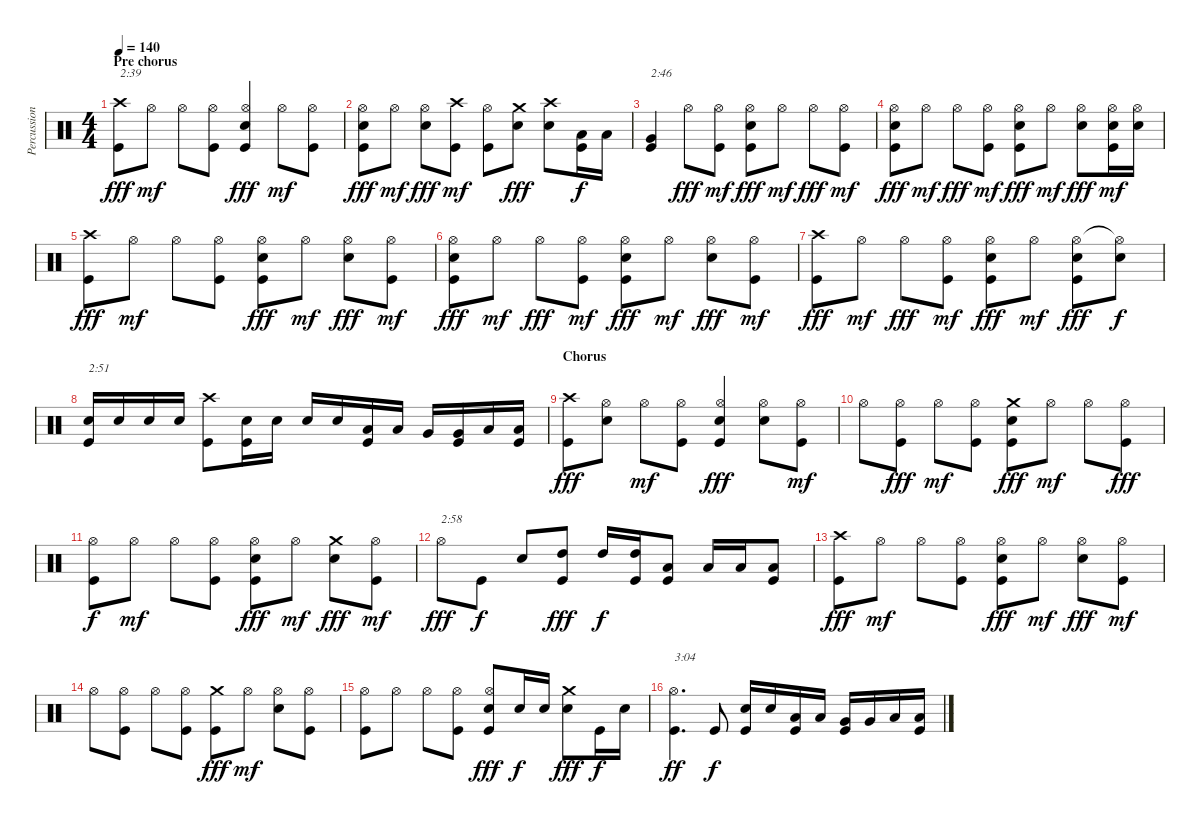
\track ("Percussion" "Percussion") {instrument percussion}
\staff {score}
\articulation defaults
\ts (4 4)
\section ("" "Pre chorus")
\tempo 140
\clef neutral
\ks c
("Crash high (hit)" "Kick (hit)").8{txt "2:39" dy fff} "Hi-Hat (open)".8{dy mf} "Hi-Hat (open)".8 ("Hi-Hat (open)" "Kick (hit)").8 ("Hi-Hat (open)" "Electric Snare (hit)" "Kick (hit)").4{dy fff} "Hi-Hat (open)".8{dy mf} ("Hi-Hat (open)" "Kick (hit)").8 |
("Hi-Hat (open)" "Electric Snare (hit)" "Kick (hit)").8{dy fff} "Hi-Hat (open)".8{dy mf} ("Hi-Hat (open)" "Electric Snare (hit)").8{dy fff} ("Crash high (hit)" "Kick (hit)").8{dy mf} ("Hi-Hat (open)" "Kick (hit)").8 ("Crash medium (hit)" "Electric Snare (hit)").8{dy fff} ("Crash high (hit)" "Electric Snare (hit)").8 ("Low Tom (hit)" "Kick (hit)").16{dy f} "Low Tom (hit)".16 |
("Very Low Tom (hit)" "Kick (hit)").4{txt "2:46"} "Hi-Hat (open)".8{dy fff} ("Hi-Hat (open)" "Kick (hit)").8{dy mf} ("Hi-Hat (open)" "Electric Snare (hit)" "Kick (hit)").8{dy fff} "Hi-Hat (open)".8{dy mf} "Hi-Hat (open)".8{dy fff} ("Hi-Hat (open)" "Kick (hit)").8{dy mf} |
("Hi-Hat (open)" "Electric Snare (hit)" "Kick (hit)").8{dy fff} "Hi-Hat (open)".8{dy mf} "Hi-Hat (open)".8{dy fff} ("Hi-Hat (open)" "Kick (hit)").8{dy mf} ("Hi-Hat (open)" "Electric Snare (hit)" "Kick (hit)").8{dy fff} "Hi-Hat (open)".8{dy mf} ("Hi-Hat (open)" "Electric Snare (hit)").8{dy fff} ("Hi-Hat (open)" "Electric Snare (hit)" "Kick (hit)").16{dy mf} ("Hi-Hat (open)" "Electric Snare (hit)").16 |
("Crash high (hit)" "Kick (hit)").8{dy fff} "Hi-Hat (open)".8{dy mf} "Hi-Hat (open)".8 ("Hi-Hat (open)" "Kick (hit)").8 ("Hi-Hat (open)" "Electric Snare (hit)" "Kick (hit)").8{dy fff} "Hi-Hat (open)".8{dy mf} ("Hi-Hat (open)" "Electric Snare (hit)").8{dy fff} ("Hi-Hat (open)" "Kick (hit)").8{dy mf} |
("Hi-Hat (open)" "Electric Snare (hit)" "Kick (hit)").8{dy fff} "Hi-Hat (open)".8{dy mf} "Hi-Hat (open)".8{dy fff} ("Hi-Hat (open)" "Kick (hit)").8{dy mf} ("Hi-Hat (open)" "Electric Snare (hit)" "Kick (hit)").8{dy fff} "Hi-Hat (open)".8{dy mf} ("Hi-Hat (open)" "Electric Snare (hit)").8{dy fff} ("Hi-Hat (open)" "Kick (hit)").8{dy mf} |
("Crash high (hit)" "Kick (hit)").8{dy fff} "Hi-Hat (open)".8{dy mf} "Hi-Hat (open)".8{dy fff} ("Hi-Hat (open)" "Kick (hit)").8{dy mf} ("Hi-Hat (open)" "Electric Snare (hit)" "Kick (hit)").8{dy fff} "Hi-Hat (open)".8{dy mf} ("Hi-Hat (open)" "Electric Snare (hit)" "Kick (hit)").8{dy fff} ("Hi-Hat (open)"{t} "Electric Snare (hit)").8{dy f} |
("Electric Snare (hit)" "Kick (hit)").16{txt "2:51"} "Electric Snare (hit)".16 "Electric Snare (hit)".16 "Electric Snare (hit)".16 ("Crash high (hit)" "Kick (hit)").8 ("Electric Snare (hit)" "Kick (hit)").16 "Electric Snare (hit)".16 "Electric Snare (hit)".16 "Electric Snare (hit)".16 ("Low Tom (hit)" "Kick (hit)").16 "Low Tom (hit)".16 "Very Low Tom (hit)".16 ("Very Low Tom (hit)" "Kick (hit)").16 "Low Floor Tom (hit)".16 ("Low Floor Tom (hit)" "Kick (hit)").16 |
\section ("" "Chorus")
("Crash high (hit)" "Kick (hit)").8{dy fff} ("Hi-Hat (open)" "Electric Snare (hit)").8 "Hi-Hat (open)".8{dy mf} ("Hi-Hat (open)" "Kick (hit)").8 ("Hi-Hat (open)" "Electric Snare (hit)" "Kick (hit)").4{dy fff} ("Hi-Hat (open)" "Electric Snare (hit)").8 ("Hi-Hat (open)" "Kick (hit)").8{dy mf} |
"Hi-Hat (open)".8 ("Hi-Hat (open)" "Kick (hit)").8{dy fff} "Hi-Hat (open)".8{dy mf} ("Hi-Hat (open)" "Kick (hit)").8 ("Crash medium (hit)" "Electric Snare (hit)" "Kick (hit)").8{dy fff} "Hi-Hat (open)".8{dy mf} "Hi-Hat (open)".8 ("Hi-Hat (open)" "Kick (hit)").8{dy fff} |
("Hi-Hat (open)" "Kick (hit)").8{dy f} "Hi-Hat (open)".8{dy mf} "Hi-Hat (open)".8 ("Hi-Hat (open)" "Kick (hit)").8 ("Hi-Hat (open)" "Electric Snare (hit)" "Kick (hit)").8{dy fff} "Hi-Hat (open)".8{dy mf} ("Crash medium (hit)" "Electric Snare (hit)").8{dy fff} ("Hi-Hat (open)" "Kick (hit)").8{dy mf} |
"Hi-Hat (open)".8{txt "2:58" dy fff} "Kick (hit)".8{dy f} "Electric Snare (hit)".8 ("High Tom (hit)" "Kick (hit)").8{dy fff} "High Tom (hit)".16{dy f} ("High Tom (hit)" "Kick (hit)").16 ("Low Tom (hit)" "Kick (hit)").8 "Low Tom (hit)".16 "Low Floor Tom (hit)".16 ("Low Floor Tom (hit)" "Kick (hit)").8 |
("Crash high (hit)" "Kick (hit)").8{dy fff} "Hi-Hat (open)".8{dy mf} "Hi-Hat (open)".8 ("Hi-Hat (open)" "Kick (hit)").8 ("Hi-Hat (open)" "Electric Snare (hit)" "Kick (hit)").8{dy fff} "Hi-Hat (open)".8{dy mf} ("Hi-Hat (open)" "Electric Snare (hit)").8{dy fff} ("Hi-Hat (open)" "Kick (hit)").8{dy mf} |
"Hi-Hat (open)".8 ("Hi-Hat (open)" "Kick (hit)").8 "Hi-Hat (open)".8 ("Hi-Hat (open)" "Kick (hit)").8 ("Crash medium (hit)" "Kick (hit)").8{dy fff} "Hi-Hat (open)".8{dy mf} ("Hi-Hat (open)" "Electric Snare (hit)").8 ("Hi-Hat (open)" "Kick (hit)").8 |
("Hi-Hat (open)" "Kick (hit)").8 "Hi-Hat (open)".8 "Hi-Hat (open)".8 ("Hi-Hat (open)" "Kick (hit)").8 ("Hi-Hat (open)" "Electric Snare (hit)" "Kick (hit)").8{dy fff} "Electric Snare (hit)".16{dy f} "Electric Snare (hit)".16 ("Crash medium (hit)" "Electric Snare (hit)").8{dy fff} "Kick (hit)".16{dy f} "Electric Snare (hit)".16 |
("Hi-Hat (open)" "Kick (hit)").4{d txt "3:04" dy ff} "Kick (hit)".8{dy f} ("Electric Snare (hit)" "Kick (hit)").16 "Electric Snare (hit)".16 ("Low Tom (hit)" "Kick (hit)").16 "Low Tom (hit)".16 ("Very Low Tom (hit)" "Kick (hit)").16 "Very Low Tom (hit)".16 "Low Floor Tom (hit)".16 ("Low Floor Tom (hit)" "Kick (hit)").16
